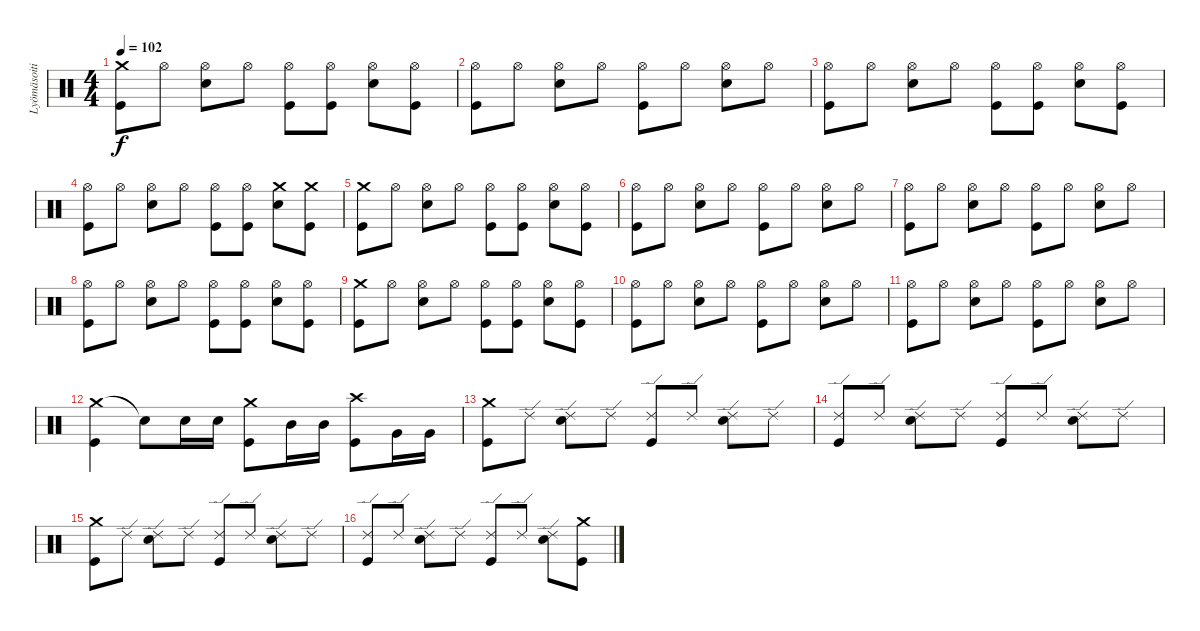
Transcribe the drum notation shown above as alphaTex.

\track ("Lyömäsoitin" "Lyömäsoiti") {instrument percussion}
\staff {score}
\articulation defaults
\ts (4 4)
\tempo 102
\clef neutral
\ks c
("Crash medium (hit)" "Kick (hit)").8{dy f} "Hi-Hat (open)".8 ("Hi-Hat (open)" "Snare (hit) 2").8 "Hi-Hat (open)".8 ("Hi-Hat (open)" "Kick (hit)").8 ("Hi-Hat (open)" "Kick (hit)").8 ("Hi-Hat (open)" "Snare (hit) 2").8 ("Hi-Hat (open)" "Kick (hit)").8 |
("Hi-Hat (open)" "Kick (hit)").8 "Hi-Hat (open)".8 ("Hi-Hat (open)" "Snare (hit) 2").8 "Hi-Hat (open)".8 ("Hi-Hat (open)" "Kick (hit)").8 "Hi-Hat (open)".8 ("Hi-Hat (open)" "Snare (hit) 2").8 "Hi-Hat (open)".8 |
("Hi-Hat (open)" "Kick (hit)").8 "Hi-Hat (open)".8 ("Hi-Hat (open)" "Snare (hit) 2").8 "Hi-Hat (open)".8 ("Hi-Hat (open)" "Kick (hit)").8 ("Hi-Hat (open)" "Kick (hit)").8 ("Hi-Hat (open)" "Snare (hit) 2").8 ("Hi-Hat (open)" "Kick (hit)").8 |
("Hi-Hat (open)" "Kick (hit)").8 "Hi-Hat (open)".8 ("Hi-Hat (open)" "Snare (hit) 2").8 "Hi-Hat (open)".8 ("Hi-Hat (open)" "Kick (hit)").8 ("Hi-Hat (open)" "Kick (hit)").8 ("Crash medium (hit)" "Snare (hit) 2").8 ("Crash medium (hit)" "Kick (hit)").8 |
("Crash medium (hit)" "Kick (hit)").8 "Hi-Hat (open)".8 ("Hi-Hat (open)" "Snare (hit) 2").8 "Hi-Hat (open)".8 ("Hi-Hat (open)" "Kick (hit)").8 ("Hi-Hat (open)" "Kick (hit)").8 ("Hi-Hat (open)" "Snare (hit) 2").8 ("Hi-Hat (open)" "Kick (hit)").8 |
("Hi-Hat (open)" "Kick (hit)").8 "Hi-Hat (open)".8 ("Hi-Hat (open)" "Snare (hit) 2").8 "Hi-Hat (open)".8 ("Hi-Hat (open)" "Kick (hit)").8 "Hi-Hat (open)".8 ("Hi-Hat (open)" "Snare (hit) 2").8 "Hi-Hat (open)".8 |
("Hi-Hat (open)" "Kick (hit)").8 "Hi-Hat (open)".8 ("Hi-Hat (open)" "Snare (hit) 2").8 "Hi-Hat (open)".8 ("Hi-Hat (open)" "Kick (hit)").8 "Hi-Hat (open)".8 ("Hi-Hat (open)" "Snare (hit) 2").8 "Hi-Hat (open)".8 |
("Hi-Hat (open)" "Kick (hit)").8 "Hi-Hat (open)".8 ("Hi-Hat (open)" "Snare (hit) 2").8 "Hi-Hat (open)".8 ("Hi-Hat (open)" "Kick (hit)").8 ("Hi-Hat (open)" "Kick (hit)").8 ("Hi-Hat (open)" "Snare (hit) 2").8 ("Hi-Hat (open)" "Kick (hit)").8 |
("Crash medium (hit)" "Kick (hit)").8 "Hi-Hat (open)".8 ("Hi-Hat (open)" "Snare (hit) 2").8 "Hi-Hat (open)".8 ("Hi-Hat (open)" "Kick (hit)").8 ("Hi-Hat (open)" "Kick (hit)").8 ("Hi-Hat (open)" "Snare (hit) 2").8 ("Hi-Hat (open)" "Kick (hit)").8 |
("Hi-Hat (open)" "Kick (hit)").8 "Hi-Hat (open)".8 ("Hi-Hat (open)" "Snare (hit) 2").8 "Hi-Hat (open)".8 ("Hi-Hat (open)" "Kick (hit)").8 "Hi-Hat (open)".8 ("Hi-Hat (open)" "Snare (hit) 2").8 "Hi-Hat (open)".8 |
("Hi-Hat (open)" "Kick (hit)").8 "Hi-Hat (open)".8 ("Hi-Hat (open)" "Snare (hit) 2").8 "Hi-Hat (open)".8 ("Hi-Hat (open)" "Kick (hit)").8 "Hi-Hat (open)".8 ("Hi-Hat (open)" "Snare (hit) 2").8 "Hi-Hat (open)".8 |
("Crash medium (hit)" "Kick (hit)").4 "Snare (hit)"{t}.8 "Snare (hit) 2".16 "Snare (hit) 2".16 ("Crash medium (hit)" "Kick (hit)").8 "Mid Tom (hit)".16 "Mid Tom (hit)".16 ("Crash high (hit)" "Kick (hit)").8 "Very Low Tom (hit)".16 "Very Low Tom (hit)".16 |
("Crash medium (hit)" "Kick (hit)").8 "Ride (edge) 2".8 ("Ride (edge) 2" "Snare (hit) 2").8 "Ride (edge) 2".8 ("Ride (edge) 2" "Kick (hit)").8 "Ride (edge) 2".8 ("Ride (edge) 2" "Snare (hit) 2").8 "Ride (edge) 2".8 |
("Ride (edge) 2" "Kick (hit)").8 "Ride (edge) 2".8 ("Ride (edge) 2" "Snare (hit) 2").8 "Ride (edge) 2".8 ("Ride (edge) 2" "Kick (hit)").8 "Ride (edge) 2".8 ("Ride (edge) 2" "Snare (hit) 2").8 "Ride (edge) 2".8 |
("Crash medium (hit)" "Kick (hit)").8 "Ride (edge) 2".8 ("Ride (edge) 2" "Snare (hit) 2").8 "Ride (edge) 2".8 ("Ride (edge) 2" "Kick (hit)").8 "Ride (edge) 2".8 ("Ride (edge) 2" "Snare (hit) 2").8 "Ride (edge) 2".8 |
("Ride (edge) 2" "Kick (hit)").8 "Ride (edge) 2".8 ("Ride (edge) 2" "Snare (hit) 2").8 "Ride (edge) 2".8 ("Ride (edge) 2" "Kick (hit)").8 "Ride (edge) 2".8 ("Ride (edge) 2" "Snare (hit) 2").8 ("Crash medium (hit)" "Kick (hit)").8
